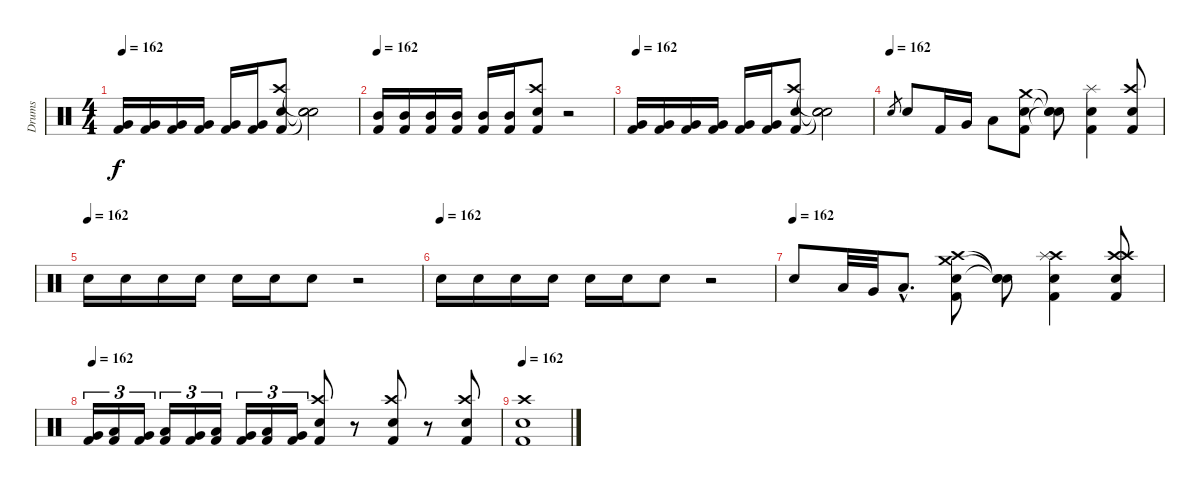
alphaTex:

\track ("Drums" "Drums") {instrument percussion}
\staff {score}
\articulation defaults
\ts (4 4)
\tempo 162
\clef neutral
\ks c
("Very Low Tom (hit)" "Kick (hit) 2").16{dy f} ("Very Low Tom (hit)" "Kick (hit) 2").16 ("Very Low Tom (hit)" "Kick (hit) 2").16 ("Very Low Tom (hit)" "Kick (hit) 2").16 ("Very Low Tom (hit)" "Kick (hit) 2").16 ("Very Low Tom (hit)" "Kick (hit) 2").16 ("Crash high (hit)" "Electric Snare (hit)" "Kick (hit) 2").8 ("Snare (hit)"{t} "Snare (hit)"{t} "Snare (hit)"{t}).2 |
\tempo 162
("Mid Tom (hit)" "Kick (hit) 2").16 ("Mid Tom (hit)" "Kick (hit) 2").16 ("Mid Tom (hit)" "Kick (hit) 2").16 ("Mid Tom (hit)" "Kick (hit) 2").16 ("Mid Tom (hit)" "Kick (hit) 2").16 ("Mid Tom (hit)" "Kick (hit) 2").16 ("Crash high (hit)" "Electric Snare (hit)" "Kick (hit) 2").8 r.2 |
\tempo 162
("Very Low Tom (hit)" "Kick (hit) 2").16 ("Very Low Tom (hit)" "Kick (hit) 2").16 ("Very Low Tom (hit)" "Kick (hit) 2").16 ("Very Low Tom (hit)" "Kick (hit) 2").16 ("Very Low Tom (hit)" "Kick (hit) 2").16 ("Very Low Tom (hit)" "Kick (hit) 2").16 ("Crash high (hit)" "Electric Snare (hit)" "Kick (hit) 2").8 ("Snare (hit)"{t} "Snare (hit)"{t} "Snare (hit)"{t}).2 |
\tempo (162)
"Electric Snare (hit)".8{gr} "Electric Snare (hit)".8 "Kick (hit) 2".16 "Very Low Tom (hit)".16 "Low Floor Tom (hit)".8 ("Crash medium (hit)" "Electric Snare (hit)" "Kick (hit) 2").8 ("Snare (hit)"{t} "Snare (hit)"{t} "Snare (hit)"{t}).8 ("Splash (hit)" "Electric Snare (hit)" "Kick (hit) 2").4 ("Crash high (hit)" "Electric Snare (hit)" "Kick (hit) 2").8 |
\tempo (162)
"Electric Snare (hit)".16 "Electric Snare (hit)".16 "Electric Snare (hit)".16 "Electric Snare (hit)".16 "Electric Snare (hit)".16 "Electric Snare (hit)".16 "Electric Snare (hit)".8 r.2 |
\tempo (162)
"Electric Snare (hit)".16 "Electric Snare (hit)".16 "Electric Snare (hit)".16 "Electric Snare (hit)".16 "Electric Snare (hit)".16 "Electric Snare (hit)".16 "Electric Snare (hit)".8 r.2 |
\tempo (162)
"Electric Snare (hit)".8 "Low Tom (hit)".32 "Very Low Tom (hit)".32 "Low Floor Tom (hit)"{hac}.8{d} ("Crash high (hit)" "Crash medium (hit)" "Electric Snare (hit)" "Kick (hit) 2").8 ("Snare (hit)"{t} "Snare (hit)"{t} "Snare (hit)"{t}).8 ("Crash high (hit)" "Splash (hit)" "Electric Snare (hit)" "Kick (hit) 2").4 ("Crash high (hit)" "Crash high (hit)" "Electric Snare (hit)" "Kick (hit) 2").8 |
\tempo 162
("Very Low Tom (hit)" "Kick (hit) 2").16{tu (3 2)} ("Low Floor Tom (hit)" "Kick (hit) 2").16{tu (3 2)} ("Very Low Tom (hit)" "Kick (hit) 2").16{tu (3 2)} ("Low Floor Tom (hit)" "Kick (hit) 2").16{tu (3 2)} ("Very Low Tom (hit)" "Kick (hit) 2").16{tu (3 2)} ("Low Floor Tom (hit)" "Kick (hit) 2").16{tu (3 2)} ("Very Low Tom (hit)" "Kick (hit) 2").16{tu (3 2)} ("Low Floor Tom (hit)" "Kick (hit) 2").16{tu (3 2)} ("Very Low Tom (hit)" "Kick (hit) 2").16{tu (3 2)} ("Crash high (hit)" "Electric Snare (hit)" "Kick (hit) 2").8 r.8 ("Crash high (hit)" "Electric Snare (hit)" "Kick (hit) 2").8 r.8 ("Crash high (hit)" "Electric Snare (hit)" "Kick (hit) 2").8 |
\tempo 162
("Crash high (hit)" "Electric Snare (hit)" "Kick (hit) 2").1
